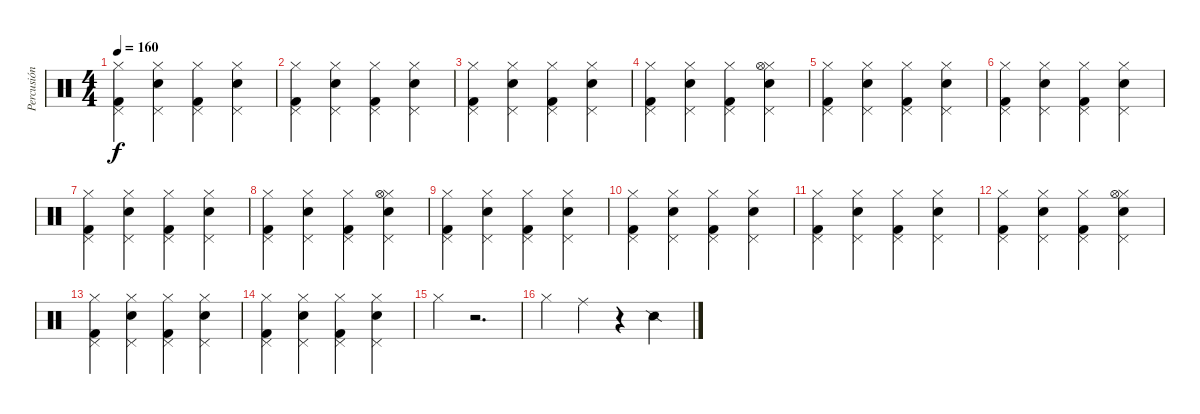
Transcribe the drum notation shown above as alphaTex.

\track ("Percusión" "Percusión") {instrument percussion}
\staff {score}
\articulation defaults
\ts (4 4)
\tempo 160
\clef neutral
\ks c
("Hi-Hat (closed)" "Kick (hit) 2" "Pedal Hi-Hat (hit)").4{dy f} ("Hi-Hat (closed)" "Snare (hit) 2" "Pedal Hi-Hat (hit)").4 ("Hi-Hat (closed)" "Kick (hit) 2" "Pedal Hi-Hat (hit)").4 ("Hi-Hat (closed)" "Snare (hit) 2" "Pedal Hi-Hat (hit)").4 |
("Hi-Hat (closed)" "Kick (hit) 2" "Pedal Hi-Hat (hit)").4 ("Hi-Hat (closed)" "Snare (hit) 2" "Pedal Hi-Hat (hit)").4 ("Hi-Hat (closed)" "Kick (hit) 2" "Pedal Hi-Hat (hit)").4 ("Hi-Hat (closed)" "Snare (hit) 2" "Pedal Hi-Hat (hit)").4 |
("Hi-Hat (closed)" "Kick (hit) 2" "Pedal Hi-Hat (hit)").4 ("Hi-Hat (closed)" "Snare (hit) 2" "Pedal Hi-Hat (hit)").4 ("Hi-Hat (closed)" "Kick (hit) 2" "Pedal Hi-Hat (hit)").4 ("Hi-Hat (closed)" "Snare (hit) 2" "Pedal Hi-Hat (hit)").4 |
("Hi-Hat (closed)" "Kick (hit) 2" "Pedal Hi-Hat (hit)").4 ("Hi-Hat (closed)" "Snare (hit) 2" "Pedal Hi-Hat (hit)").4 ("Hi-Hat (closed)" "Kick (hit) 2" "Pedal Hi-Hat (hit)").4 ("Hi-Hat (closed)" "Snare (hit) 2" "Pedal Hi-Hat (hit)" "Hi-Hat (open)").4 |
("Hi-Hat (closed)" "Kick (hit) 2" "Pedal Hi-Hat (hit)").4 ("Hi-Hat (closed)" "Snare (hit) 2" "Pedal Hi-Hat (hit)").4 ("Hi-Hat (closed)" "Kick (hit) 2" "Pedal Hi-Hat (hit)").4 ("Hi-Hat (closed)" "Snare (hit) 2" "Pedal Hi-Hat (hit)").4 |
("Hi-Hat (closed)" "Kick (hit) 2" "Pedal Hi-Hat (hit)").4 ("Hi-Hat (closed)" "Snare (hit) 2" "Pedal Hi-Hat (hit)").4 ("Hi-Hat (closed)" "Kick (hit) 2" "Pedal Hi-Hat (hit)").4 ("Hi-Hat (closed)" "Snare (hit) 2" "Pedal Hi-Hat (hit)").4 |
("Hi-Hat (closed)" "Kick (hit) 2" "Pedal Hi-Hat (hit)").4 ("Hi-Hat (closed)" "Snare (hit) 2" "Pedal Hi-Hat (hit)").4 ("Hi-Hat (closed)" "Kick (hit) 2" "Pedal Hi-Hat (hit)").4 ("Hi-Hat (closed)" "Snare (hit) 2" "Pedal Hi-Hat (hit)").4 |
("Hi-Hat (closed)" "Kick (hit) 2" "Pedal Hi-Hat (hit)").4 ("Hi-Hat (closed)" "Snare (hit) 2" "Pedal Hi-Hat (hit)").4 ("Hi-Hat (closed)" "Kick (hit) 2" "Pedal Hi-Hat (hit)").4 ("Hi-Hat (closed)" "Snare (hit) 2" "Pedal Hi-Hat (hit)" "Hi-Hat (open)").4 |
("Hi-Hat (closed)" "Kick (hit) 2" "Pedal Hi-Hat (hit)").4 ("Hi-Hat (closed)" "Snare (hit) 2" "Pedal Hi-Hat (hit)").4 ("Hi-Hat (closed)" "Kick (hit) 2" "Pedal Hi-Hat (hit)").4 ("Hi-Hat (closed)" "Snare (hit) 2" "Pedal Hi-Hat (hit)").4 |
("Hi-Hat (closed)" "Kick (hit) 2" "Pedal Hi-Hat (hit)").4 ("Hi-Hat (closed)" "Snare (hit) 2" "Pedal Hi-Hat (hit)").4 ("Hi-Hat (closed)" "Kick (hit) 2" "Pedal Hi-Hat (hit)").4 ("Hi-Hat (closed)" "Snare (hit) 2" "Pedal Hi-Hat (hit)").4 |
("Hi-Hat (closed)" "Kick (hit) 2" "Pedal Hi-Hat (hit)").4 ("Hi-Hat (closed)" "Snare (hit) 2" "Pedal Hi-Hat (hit)").4 ("Hi-Hat (closed)" "Kick (hit) 2" "Pedal Hi-Hat (hit)").4 ("Hi-Hat (closed)" "Snare (hit) 2" "Pedal Hi-Hat (hit)").4 |
("Hi-Hat (closed)" "Kick (hit) 2" "Pedal Hi-Hat (hit)").4 ("Hi-Hat (closed)" "Snare (hit) 2" "Pedal Hi-Hat (hit)").4 ("Hi-Hat (closed)" "Kick (hit) 2" "Pedal Hi-Hat (hit)").4 ("Hi-Hat (closed)" "Snare (hit) 2" "Pedal Hi-Hat (hit)" "Hi-Hat (open)").4 |
("Hi-Hat (closed)" "Kick (hit) 2" "Pedal Hi-Hat (hit)").4 ("Hi-Hat (closed)" "Snare (hit) 2" "Pedal Hi-Hat (hit)").4 ("Hi-Hat (closed)" "Kick (hit) 2" "Pedal Hi-Hat (hit)").4 ("Hi-Hat (closed)" "Snare (hit) 2" "Pedal Hi-Hat (hit)").4 |
("Hi-Hat (closed)" "Kick (hit) 2" "Pedal Hi-Hat (hit)").4 ("Hi-Hat (closed)" "Snare (hit) 2" "Pedal Hi-Hat (hit)").4 ("Hi-Hat (closed)" "Kick (hit) 2" "Pedal Hi-Hat (hit)").4 ("Hi-Hat (closed)" "Snare (hit) 2" "Pedal Hi-Hat (hit)").4 |
"Hi-Hat (closed)".4 r.2{d} |
"Hi-Hat (closed)".4 "Ride (middle)".4 r.4 "Snare (side stick) 2".4
